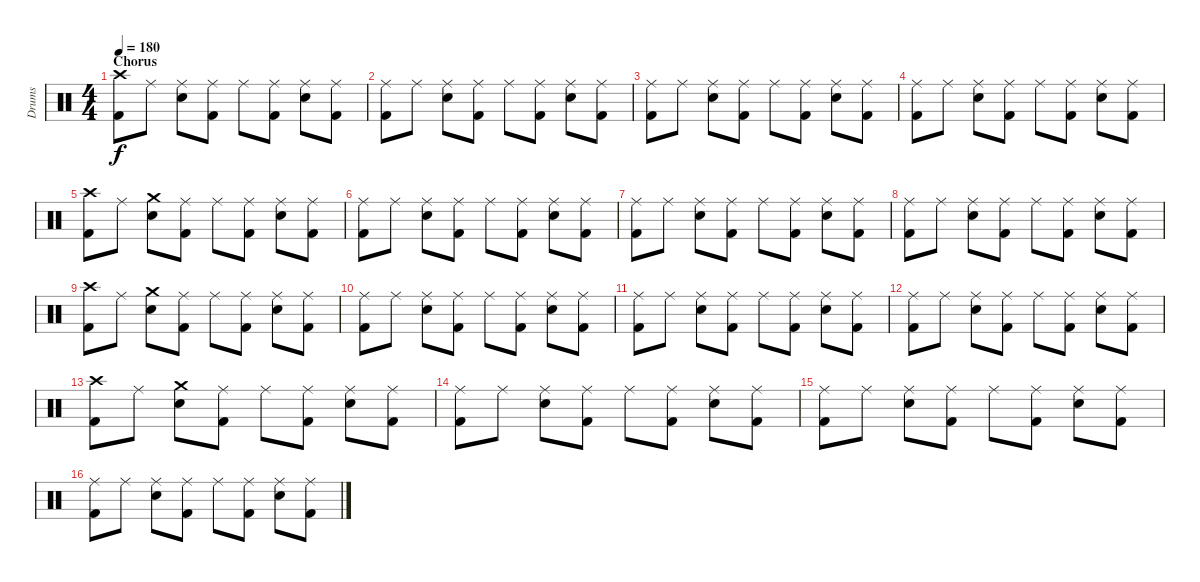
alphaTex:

\track ("Drums" "Drums") {instrument percussion}
\staff {score}
\articulation defaults
\ts (4 4)
\section ("" "Chorus")
\tempo 180
\clef neutral
\ks c
("Crash high (hit)" "Kick (hit) 2").8{dy f} "Ride (middle)".8 ("Ride (middle)" "Electric Snare (hit)").8 ("Ride (middle)" "Kick (hit) 2").8 "Ride (middle)".8 ("Ride (middle)" "Kick (hit) 2").8 ("Ride (middle)" "Electric Snare (hit)").8 ("Ride (middle)" "Kick (hit) 2").8 |
("Ride (middle)" "Kick (hit) 2").8 "Ride (middle)".8 ("Ride (middle)" "Electric Snare (hit)").8 ("Ride (middle)" "Kick (hit) 2").8 "Ride (middle)".8 ("Ride (middle)" "Kick (hit) 2").8 ("Ride (middle)" "Electric Snare (hit)").8 ("Ride (middle)" "Kick (hit) 2").8 |
("Ride (middle)" "Kick (hit) 2").8 "Ride (middle)".8 ("Ride (middle)" "Electric Snare (hit)").8 ("Ride (middle)" "Kick (hit) 2").8 "Ride (middle)".8 ("Ride (middle)" "Kick (hit) 2").8 ("Ride (middle)" "Electric Snare (hit)").8 ("Ride (middle)" "Kick (hit) 2").8 |
("Ride (middle)" "Kick (hit) 2").8 "Ride (middle)".8 ("Ride (middle)" "Electric Snare (hit)").8 ("Ride (middle)" "Kick (hit) 2").8 "Ride (middle)".8 ("Ride (middle)" "Kick (hit) 2").8 ("Ride (middle)" "Electric Snare (hit)").8 ("Ride (middle)" "Kick (hit) 2").8 |
("Crash high (hit)" "Kick (hit) 2").8 "Ride (middle)".8 ("Crash medium (hit)" "Electric Snare (hit)").8 ("Ride (middle)" "Kick (hit) 2").8 "Ride (middle)".8 ("Ride (middle)" "Kick (hit) 2").8 ("Ride (middle)" "Electric Snare (hit)").8 ("Ride (middle)" "Kick (hit) 2").8 |
("Ride (middle)" "Kick (hit) 2").8 "Ride (middle)".8 ("Ride (middle)" "Electric Snare (hit)").8 ("Ride (middle)" "Kick (hit) 2").8 "Ride (middle)".8 ("Ride (middle)" "Kick (hit) 2").8 ("Ride (middle)" "Electric Snare (hit)").8 ("Ride (middle)" "Kick (hit) 2").8 |
("Ride (middle)" "Kick (hit) 2").8 "Ride (middle)".8 ("Ride (middle)" "Electric Snare (hit)").8 ("Ride (middle)" "Kick (hit) 2").8 "Ride (middle)".8 ("Ride (middle)" "Kick (hit) 2").8 ("Ride (middle)" "Electric Snare (hit)").8 ("Ride (middle)" "Kick (hit) 2").8 |
("Ride (middle)" "Kick (hit) 2").8 "Ride (middle)".8 ("Ride (middle)" "Electric Snare (hit)").8 ("Ride (middle)" "Kick (hit) 2").8 "Ride (middle)".8 ("Ride (middle)" "Kick (hit) 2").8 ("Ride (middle)" "Electric Snare (hit)").8 ("Ride (middle)" "Kick (hit) 2").8 |
("Crash high (hit)" "Kick (hit) 2").8 "Ride (middle)".8 ("Crash medium (hit)" "Electric Snare (hit)").8 ("Ride (middle)" "Kick (hit) 2").8 "Ride (middle)".8 ("Ride (middle)" "Kick (hit) 2").8 ("Ride (middle)" "Electric Snare (hit)").8 ("Ride (middle)" "Kick (hit) 2").8 |
("Ride (middle)" "Kick (hit) 2").8 "Ride (middle)".8 ("Ride (middle)" "Electric Snare (hit)").8 ("Ride (middle)" "Kick (hit) 2").8 "Ride (middle)".8 ("Ride (middle)" "Kick (hit) 2").8 ("Ride (middle)" "Electric Snare (hit)").8 ("Ride (middle)" "Kick (hit) 2").8 |
("Ride (middle)" "Kick (hit) 2").8 "Ride (middle)".8 ("Ride (middle)" "Electric Snare (hit)").8 ("Ride (middle)" "Kick (hit) 2").8 "Ride (middle)".8 ("Ride (middle)" "Kick (hit) 2").8 ("Ride (middle)" "Electric Snare (hit)").8 ("Ride (middle)" "Kick (hit) 2").8 |
("Ride (middle)" "Kick (hit) 2").8 "Ride (middle)".8 ("Ride (middle)" "Electric Snare (hit)").8 ("Ride (middle)" "Kick (hit) 2").8 "Ride (middle)".8 ("Ride (middle)" "Kick (hit) 2").8 ("Ride (middle)" "Electric Snare (hit)").8 ("Ride (middle)" "Kick (hit) 2").8 |
("Crash high (hit)" "Kick (hit) 2").8 "Ride (middle)".8 ("Crash medium (hit)" "Electric Snare (hit)").8 ("Ride (middle)" "Kick (hit) 2").8 "Ride (middle)".8 ("Ride (middle)" "Kick (hit) 2").8 ("Ride (middle)" "Electric Snare (hit)").8 ("Ride (middle)" "Kick (hit) 2").8 |
("Ride (middle)" "Kick (hit) 2").8 "Ride (middle)".8 ("Ride (middle)" "Electric Snare (hit)").8 ("Ride (middle)" "Kick (hit) 2").8 "Ride (middle)".8 ("Ride (middle)" "Kick (hit) 2").8 ("Ride (middle)" "Electric Snare (hit)").8 ("Ride (middle)" "Kick (hit) 2").8 |
("Ride (middle)" "Kick (hit) 2").8 "Ride (middle)".8 ("Ride (middle)" "Electric Snare (hit)").8 ("Ride (middle)" "Kick (hit) 2").8 "Ride (middle)".8 ("Ride (middle)" "Kick (hit) 2").8 ("Ride (middle)" "Electric Snare (hit)").8 ("Ride (middle)" "Kick (hit) 2").8 |
("Ride (middle)" "Kick (hit) 2").8 "Ride (middle)".8 ("Ride (middle)" "Electric Snare (hit)").8 ("Ride (middle)" "Kick (hit) 2").8 "Ride (middle)".8 ("Ride (middle)" "Kick (hit) 2").8 ("Ride (middle)" "Electric Snare (hit)").8 ("Ride (middle)" "Kick (hit) 2").8
